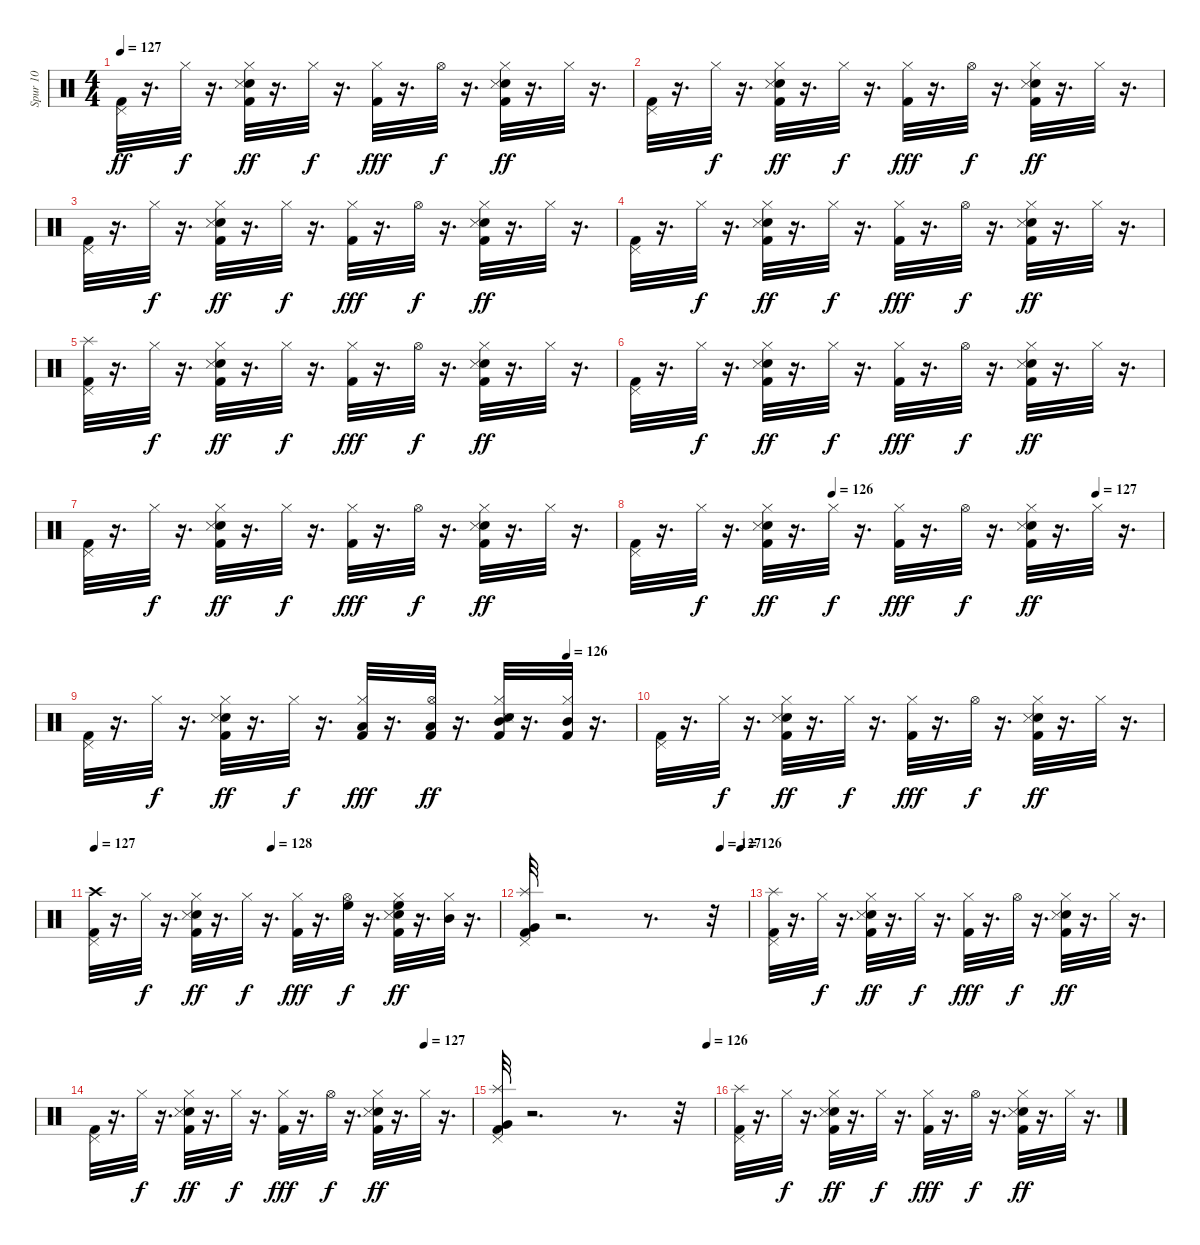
\track ("Spur 10" "Spur 10") {instrument percussion}
\staff {score}
\articulation defaults
\ts (4 4)
\tempo 127
\clef neutral
\ks c
("Kick (hit) 2" "Pedal Hi-Hat (hit)").32{dy ff} r.16{d} "Hi-Hat (closed)".32{dy f} r.16{d} ("Snare (hit) 2" "Kick (hit) 2" "Hi-Hat (closed)" "Snare (side stick) 3").32{dy ff} r.16{d} "Hi-Hat (closed)".32{dy f} r.16{d} ("Kick (hit) 2" "Hi-Hat (closed)").32{dy fff} r.16{d} "Hi-Hat (open)".32{dy f} r.16{d} ("Snare (hit) 2" "Kick (hit) 2" "Hi-Hat (closed)" "Snare (side stick) 3").32{dy ff} r.16{d} "Hi-Hat (closed)".32 r.16{d} |
("Kick (hit) 2" "Pedal Hi-Hat (hit)").32 r.16{d} "Hi-Hat (closed)".32{dy f} r.16{d} ("Snare (hit) 2" "Kick (hit) 2" "Hi-Hat (closed)" "Snare (side stick) 3").32{dy ff} r.16{d} "Hi-Hat (closed)".32{dy f} r.16{d} ("Kick (hit) 2" "Hi-Hat (closed)").32{dy fff} r.16{d} "Hi-Hat (open)".32{dy f} r.16{d} ("Snare (hit) 2" "Kick (hit) 2" "Hi-Hat (closed)" "Snare (side stick) 3").32{dy ff} r.16{d} "Hi-Hat (closed)".32 r.16{d} |
("Kick (hit) 2" "Pedal Hi-Hat (hit)").32 r.16{d} "Hi-Hat (closed)".32{dy f} r.16{d} ("Snare (hit) 2" "Kick (hit) 2" "Hi-Hat (closed)" "Snare (side stick) 3").32{dy ff} r.16{d} "Hi-Hat (closed)".32{dy f} r.16{d} ("Kick (hit) 2" "Hi-Hat (closed)").32{dy fff} r.16{d} "Hi-Hat (open)".32{dy f} r.16{d} ("Snare (hit) 2" "Kick (hit) 2" "Hi-Hat (closed)" "Snare (side stick) 3").32{dy ff} r.16{d} "Hi-Hat (closed)".32 r.16{d} |
("Kick (hit) 2" "Pedal Hi-Hat (hit)").32 r.16{d} "Hi-Hat (closed)".32{dy f} r.16{d} ("Snare (hit) 2" "Kick (hit) 2" "Hi-Hat (closed)" "Snare (side stick) 3").32{dy ff} r.16{d} "Hi-Hat (closed)".32{dy f} r.16{d} ("Kick (hit) 2" "Hi-Hat (closed)").32{dy fff} r.16{d} "Hi-Hat (open)".32{dy f} r.16{d} ("Snare (hit) 2" "Kick (hit) 2" "Hi-Hat (closed)" "Snare (side stick) 3").32{dy ff} r.16{d} "Hi-Hat (closed)".32 r.16{d} |
("Splash (hit)" "Kick (hit) 2" "Pedal Hi-Hat (hit)").32 r.16{d} "Hi-Hat (closed)".32{dy f} r.16{d} ("Snare (hit) 2" "Kick (hit) 2" "Hi-Hat (closed)" "Snare (side stick) 3").32{dy ff} r.16{d} "Hi-Hat (closed)".32{dy f} r.16{d} ("Kick (hit) 2" "Hi-Hat (closed)").32{dy fff} r.16{d} "Hi-Hat (open)".32{dy f} r.16{d} ("Snare (hit) 2" "Kick (hit) 2" "Hi-Hat (closed)" "Snare (side stick) 3").32{dy ff} r.16{d} "Hi-Hat (closed)".32 r.16{d} |
("Kick (hit) 2" "Pedal Hi-Hat (hit)").32 r.16{d} "Hi-Hat (closed)".32{dy f} r.16{d} ("Snare (hit) 2" "Kick (hit) 2" "Hi-Hat (closed)" "Snare (side stick) 3").32{dy ff} r.16{d} "Hi-Hat (closed)".32{dy f} r.16{d} ("Kick (hit) 2" "Hi-Hat (closed)").32{dy fff} r.16{d} "Hi-Hat (open)".32{dy f} r.16{d} ("Snare (hit) 2" "Kick (hit) 2" "Hi-Hat (closed)" "Snare (side stick) 3").32{dy ff} r.16{d} "Hi-Hat (closed)".32 r.16{d} |
("Kick (hit) 2" "Pedal Hi-Hat (hit)").32 r.16{d} "Hi-Hat (closed)".32{dy f} r.16{d} ("Snare (hit) 2" "Kick (hit) 2" "Hi-Hat (closed)" "Snare (side stick) 3").32{dy ff} r.16{d} "Hi-Hat (closed)".32{dy f} r.16{d} ("Kick (hit) 2" "Hi-Hat (closed)").32{dy fff} r.16{d} "Hi-Hat (open)".32{dy f} r.16{d} ("Snare (hit) 2" "Kick (hit) 2" "Hi-Hat (closed)" "Snare (side stick) 3").32{dy ff} r.16{d} "Hi-Hat (closed)".32 r.16{d} |
\tempo (126 0.375)
\tempo (127 0.875)
("Kick (hit) 2" "Pedal Hi-Hat (hit)").32 r.16{d} "Hi-Hat (closed)".32{dy f} r.16{d} ("Snare (hit) 2" "Kick (hit) 2" "Hi-Hat (closed)" "Snare (side stick) 3").32{dy ff} r.16{d} "Hi-Hat (closed)".32{dy f} r.16{d} ("Kick (hit) 2" "Hi-Hat (closed)").32{dy fff} r.16{d} "Hi-Hat (open)".32{dy f} r.16{d} ("Snare (hit) 2" "Kick (hit) 2" "Hi-Hat (closed)" "Snare (side stick) 3").32{dy ff} r.16{d} "Hi-Hat (closed)".32 r.16{d} |
\tempo (126 0.875)
("Kick (hit) 2" "Pedal Hi-Hat (hit)").32 r.16{d} "Hi-Hat (closed)".32{dy f} r.16{d} ("Snare (hit) 2" "Kick (hit) 2" "Hi-Hat (closed)" "Snare (side stick) 3").32{dy ff} r.16{d} "Hi-Hat (closed)".32{dy f} r.16{d} ("Low Tom (hit)" "Kick (hit) 2" "Hi-Hat (closed)").32{dy fff} r.16{d} ("Low Tom (hit)" "Kick (hit) 2" "Hi-Hat (open)").32{dy ff} r.16{d} ("Snare (hit) 2" "Kick (hit) 2" "Mid Tom (hit)" "Hi-Hat (closed)" "Snare (side stick) 3").32 r.16{d} ("Mid Tom (hit)" "Kick (hit) 2" "Hi-Hat (closed)").32 r.16{d} |
("Kick (hit) 2" "Pedal Hi-Hat (hit)").32 r.16{d} "Hi-Hat (closed)".32{dy f} r.16{d} ("Snare (hit) 2" "Kick (hit) 2" "Hi-Hat (closed)" "Snare (side stick) 3").32{dy ff} r.16{d} "Hi-Hat (closed)".32{dy f} r.16{d} ("Kick (hit) 2" "Hi-Hat (closed)").32{dy fff} r.16{d} "Hi-Hat (open)".32{dy f} r.16{d} ("Snare (hit) 2" "Kick (hit) 2" "Hi-Hat (closed)" "Snare (side stick) 3").32{dy ff} r.16{d} "Hi-Hat (closed)".32 r.16{d} |
\tempo 127
\tempo (128 0.4375)
("Crash high (hit)" "Kick (hit) 2" "Pedal Hi-Hat (hit)").32 r.16{d} "Hi-Hat (closed)".32{dy f} r.16{d} ("Snare (hit) 2" "Kick (hit) 2" "Hi-Hat (closed)" "Snare (side stick) 3").32{dy ff} r.16{d} "Hi-Hat (closed)".32{dy f} r.16{d} ("Kick (hit) 2" "Hi-Hat (closed)").32{dy fff} r.16{d} ("Hi-Hat (open)" "High Floor Tom (hit)").32{dy f} r.16{d} ("Snare (hit) 2" "Kick (hit) 2" "Hi-Hat (closed)" "Snare (side stick) 3" "High Floor Tom (hit)").32{dy ff} r.16{d} ("Hi-Hat (closed)" "Mid Tom (hit)").32 r.16{d} |
\tempo (127 0.875)
\tempo (126 0.96875)
("Kick (hit) 2" "Pedal Hi-Hat (hit)" "Splash (hit)" "Very Low Tom (hit)").32 r.2{d} r.8{d} r.32 |
("Splash (hit)" "Kick (hit) 2" "Pedal Hi-Hat (hit)").32 r.16{d} "Hi-Hat (closed)".32{dy f} r.16{d} ("Snare (hit) 2" "Kick (hit) 2" "Hi-Hat (closed)" "Snare (side stick) 3").32{dy ff} r.16{d} "Hi-Hat (closed)".32{dy f} r.16{d} ("Kick (hit) 2" "Hi-Hat (closed)").32{dy fff} r.16{d} "Hi-Hat (open)".32{dy f} r.16{d} ("Snare (hit) 2" "Kick (hit) 2" "Hi-Hat (closed)" "Snare (side stick) 3").32{dy ff} r.16{d} "Hi-Hat (closed)".32 r.16{d} |
\tempo (127 0.875)
("Kick (hit) 2" "Pedal Hi-Hat (hit)").32 r.16{d} "Hi-Hat (closed)".32{dy f} r.16{d} ("Snare (hit) 2" "Kick (hit) 2" "Hi-Hat (closed)" "Snare (side stick) 3").32{dy ff} r.16{d} "Hi-Hat (closed)".32{dy f} r.16{d} ("Kick (hit) 2" "Hi-Hat (closed)").32{dy fff} r.16{d} "Hi-Hat (open)".32{dy f} r.16{d} ("Snare (hit) 2" "Kick (hit) 2" "Hi-Hat (closed)" "Snare (side stick) 3").32{dy ff} r.16{d} "Hi-Hat (closed)".32 r.16{d} |
\tempo (126 0.96875)
("Kick (hit) 2" "Pedal Hi-Hat (hit)" "Splash (hit)" "Very Low Tom (hit)").32 r.2{d} r.8{d} r.32 |
("Splash (hit)" "Kick (hit) 2" "Pedal Hi-Hat (hit)").32 r.16{d} "Hi-Hat (closed)".32{dy f} r.16{d} ("Snare (hit) 2" "Kick (hit) 2" "Hi-Hat (closed)" "Snare (side stick) 3").32{dy ff} r.16{d} "Hi-Hat (closed)".32{dy f} r.16{d} ("Kick (hit) 2" "Hi-Hat (closed)").32{dy fff} r.16{d} "Hi-Hat (open)".32{dy f} r.16{d} ("Snare (hit) 2" "Kick (hit) 2" "Hi-Hat (closed)" "Snare (side stick) 3").32{dy ff} r.16{d} "Hi-Hat (closed)".32 r.16{d}
